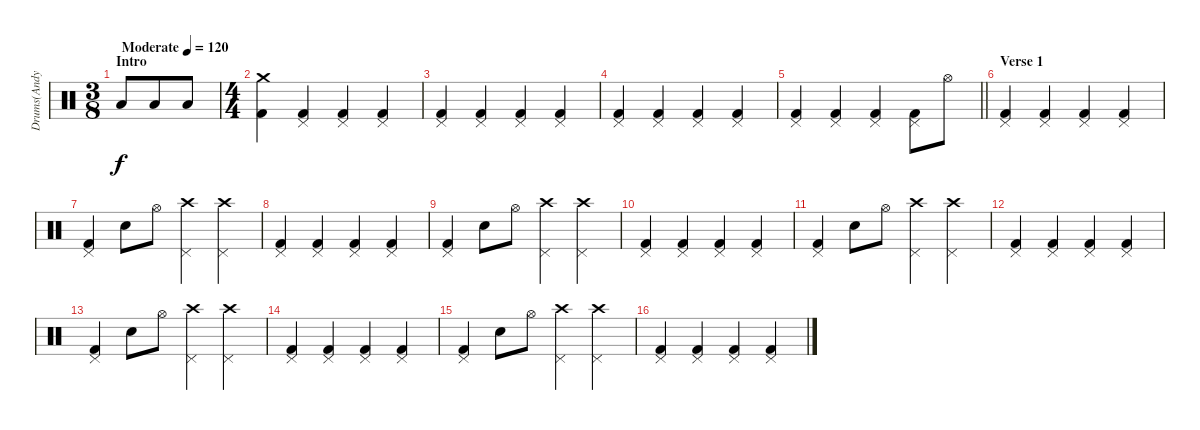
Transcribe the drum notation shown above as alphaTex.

\track ("Drums(Andy Hurley)" "Drums(Andy") {instrument percussion}
\staff {score}
\articulation defaults
\ts (3 8)
\section ("" "Intro")
\tempo (120 "Moderate")
\clef neutral
\ks c "Low Tom (hit)".8{dy f} "Low Tom (hit)".8 "Low Tom (hit)".8
|
\ts (4 4)
("Crash medium (hit)" "Kick (hit) 2").4 ("Pedal Hi-Hat (hit)" "Kick (hit) 2").4 ("Pedal Hi-Hat (hit)" "Kick (hit) 2").4 ("Pedal Hi-Hat (hit)" "Kick (hit) 2").4 |
("Pedal Hi-Hat (hit)" "Kick (hit) 2").4 ("Pedal Hi-Hat (hit)" "Kick (hit) 2").4 ("Pedal Hi-Hat (hit)" "Kick (hit) 2").4 ("Pedal Hi-Hat (hit)" "Kick (hit) 2").4 |
("Pedal Hi-Hat (hit)" "Kick (hit) 2").4 ("Pedal Hi-Hat (hit)" "Kick (hit) 2").4 ("Pedal Hi-Hat (hit)" "Kick (hit) 2").4 ("Pedal Hi-Hat (hit)" "Kick (hit) 2").4 |
\barLineRight lightlight
("Pedal Hi-Hat (hit)" "Kick (hit) 2").4 ("Pedal Hi-Hat (hit)" "Kick (hit) 2").4 ("Pedal Hi-Hat (hit)" "Kick (hit) 2").4 ("Pedal Hi-Hat (hit)" "Kick (hit) 2").8 "Hi-Hat (open)".8 |
\section ("" "Verse 1")
("Pedal Hi-Hat (hit)" "Kick (hit) 2").4 ("Pedal Hi-Hat (hit)" "Kick (hit) 2").4 ("Pedal Hi-Hat (hit)" "Kick (hit) 2").4 ("Pedal Hi-Hat (hit)" "Kick (hit) 2").4 |
("Pedal Hi-Hat (hit)" "Kick (hit) 2").4 "Electric Snare (hit)".8 "Hi-Hat (open)".8 ("Crash high (hit)" "Pedal Hi-Hat (hit)").4 ("Crash high (hit)" "Pedal Hi-Hat (hit)").4 |
("Pedal Hi-Hat (hit)" "Kick (hit) 2").4 ("Pedal Hi-Hat (hit)" "Kick (hit) 2").4 ("Pedal Hi-Hat (hit)" "Kick (hit) 2").4 ("Pedal Hi-Hat (hit)" "Kick (hit) 2").4 |
("Pedal Hi-Hat (hit)" "Kick (hit) 2").4 "Electric Snare (hit)".8 "Hi-Hat (open)".8 ("Crash high (hit)" "Pedal Hi-Hat (hit)").4 ("Crash high (hit)" "Pedal Hi-Hat (hit)").4 |
("Pedal Hi-Hat (hit)" "Kick (hit) 2").4 ("Pedal Hi-Hat (hit)" "Kick (hit) 2").4 ("Pedal Hi-Hat (hit)" "Kick (hit) 2").4 ("Pedal Hi-Hat (hit)" "Kick (hit) 2").4 |
("Pedal Hi-Hat (hit)" "Kick (hit) 2").4 "Electric Snare (hit)".8 "Hi-Hat (open)".8 ("Crash high (hit)" "Pedal Hi-Hat (hit)").4 ("Crash high (hit)" "Pedal Hi-Hat (hit)").4 |
("Pedal Hi-Hat (hit)" "Kick (hit) 2").4 ("Pedal Hi-Hat (hit)" "Kick (hit) 2").4 ("Pedal Hi-Hat (hit)" "Kick (hit) 2").4 ("Pedal Hi-Hat (hit)" "Kick (hit) 2").4 |
("Pedal Hi-Hat (hit)" "Kick (hit) 2").4 "Electric Snare (hit)".8 "Hi-Hat (open)".8 ("Crash high (hit)" "Pedal Hi-Hat (hit)").4 ("Crash high (hit)" "Pedal Hi-Hat (hit)").4 |
("Pedal Hi-Hat (hit)" "Kick (hit) 2").4 ("Pedal Hi-Hat (hit)" "Kick (hit) 2").4 ("Pedal Hi-Hat (hit)" "Kick (hit) 2").4 ("Pedal Hi-Hat (hit)" "Kick (hit) 2").4 |
("Pedal Hi-Hat (hit)" "Kick (hit) 2").4 "Electric Snare (hit)".8 "Hi-Hat (open)".8 ("Crash high (hit)" "Pedal Hi-Hat (hit)").4 ("Crash high (hit)" "Pedal Hi-Hat (hit)").4 |
("Pedal Hi-Hat (hit)" "Kick (hit) 2").4 ("Pedal Hi-Hat (hit)" "Kick (hit) 2").4 ("Pedal Hi-Hat (hit)" "Kick (hit) 2").4 ("Pedal Hi-Hat (hit)" "Kick (hit) 2").4
